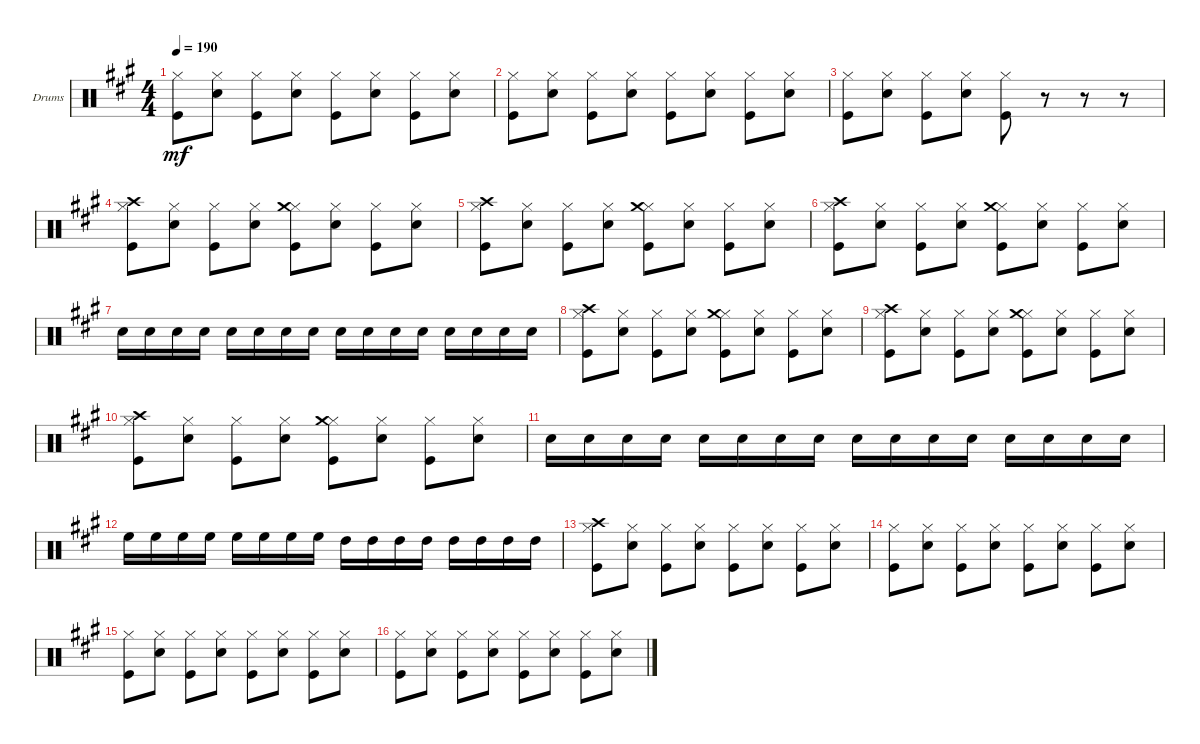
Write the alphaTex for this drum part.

\defaultSystemsLayout 4
\bracketExtendMode groupsimilarinstruments
\firstSystemTrackNameOrientation horizontal
\otherSystemsTrackNameOrientation horizontal
\track ("Drumkit" "Drums") {instrument percussion}
\staff {score}
\articulation defaults
\ts (4 4)
\tempo 190
\clef neutral
\ks f#minor
("Kick (hit)" "Hi-Hat (closed)").8{dy mf} ("Snare (hit) 2" "Hi-Hat (closed)").8 ("Kick (hit)" "Hi-Hat (closed)").8 ("Snare (hit) 2" "Hi-Hat (closed)").8 ("Kick (hit)" "Hi-Hat (closed)").8 ("Snare (hit) 2" "Hi-Hat (closed)").8 ("Kick (hit)" "Hi-Hat (closed)").8 ("Snare (hit) 2" "Hi-Hat (closed)").8 |
("Kick (hit)" "Hi-Hat (closed)").8 ("Snare (hit) 2" "Hi-Hat (closed)").8 ("Kick (hit)" "Hi-Hat (closed)").8 ("Snare (hit) 2" "Hi-Hat (closed)").8 ("Kick (hit)" "Hi-Hat (closed)").8 ("Snare (hit) 2" "Hi-Hat (closed)").8 ("Kick (hit)" "Hi-Hat (closed)").8 ("Snare (hit) 2" "Hi-Hat (closed)").8 |
("Kick (hit)" "Hi-Hat (closed)").8 ("Snare (hit) 2" "Hi-Hat (closed)").8 ("Kick (hit)" "Hi-Hat (closed)").8 ("Snare (hit) 2" "Hi-Hat (closed)").8 ("Kick (hit)" "Hi-Hat (closed)").8 r.8 r.8 r.8 |
("Kick (hit)" "Hi-Hat (closed)" "Crash high (hit)").8 ("Snare (hit) 2" "Hi-Hat (closed)").8 ("Kick (hit)" "Hi-Hat (closed)").8 ("Snare (hit) 2" "Hi-Hat (closed)").8 ("Kick (hit)" "Hi-Hat (closed)" "Crash medium (hit)").8 ("Snare (hit) 2" "Hi-Hat (closed)").8 ("Kick (hit)" "Hi-Hat (closed)").8 ("Snare (hit) 2" "Hi-Hat (closed)").8 |
("Kick (hit)" "Hi-Hat (closed)" "Crash high (hit)").8 ("Snare (hit) 2" "Hi-Hat (closed)").8 ("Kick (hit)" "Hi-Hat (closed)").8 ("Snare (hit) 2" "Hi-Hat (closed)").8 ("Kick (hit)" "Hi-Hat (closed)" "Crash medium (hit)").8 ("Snare (hit) 2" "Hi-Hat (closed)").8 ("Kick (hit)" "Hi-Hat (closed)").8 ("Snare (hit) 2" "Hi-Hat (closed)").8 |
("Kick (hit)" "Hi-Hat (closed)" "Crash high (hit)").8 ("Snare (hit) 2" "Hi-Hat (closed)").8 ("Kick (hit)" "Hi-Hat (closed)").8 ("Snare (hit) 2" "Hi-Hat (closed)").8 ("Kick (hit)" "Hi-Hat (closed)" "Crash medium (hit)").8 ("Snare (hit) 2" "Hi-Hat (closed)").8 ("Kick (hit)" "Hi-Hat (closed)").8 ("Snare (hit) 2" "Hi-Hat (closed)").8 |
"Snare (hit) 2".16 "Snare (hit) 2".16 "Snare (hit) 2".16 "Snare (hit) 2".16 "Snare (hit) 2".16 "Snare (hit) 2".16 "Snare (hit) 2".16 "Snare (hit) 2".16 "Snare (hit) 2".16 "Snare (hit) 2".16 "Snare (hit) 2".16 "Snare (hit) 2".16 "Snare (hit) 2".16 "Snare (hit) 2".16 "Snare (hit) 2".16 "Snare (hit) 2".16 |
("Kick (hit)" "Hi-Hat (closed)" "Crash high (hit)").8 ("Snare (hit) 2" "Hi-Hat (closed)").8 ("Kick (hit)" "Hi-Hat (closed)").8 ("Snare (hit) 2" "Hi-Hat (closed)").8 ("Kick (hit)" "Hi-Hat (closed)" "Crash medium (hit)").8 ("Snare (hit) 2" "Hi-Hat (closed)").8 ("Kick (hit)" "Hi-Hat (closed)").8 ("Snare (hit) 2" "Hi-Hat (closed)").8 |
("Kick (hit)" "Hi-Hat (closed)" "Crash high (hit)").8 ("Snare (hit) 2" "Hi-Hat (closed)").8 ("Kick (hit)" "Hi-Hat (closed)").8 ("Snare (hit) 2" "Hi-Hat (closed)").8 ("Kick (hit)" "Hi-Hat (closed)" "Crash medium (hit)").8 ("Snare (hit) 2" "Hi-Hat (closed)").8 ("Kick (hit)" "Hi-Hat (closed)").8 ("Snare (hit) 2" "Hi-Hat (closed)").8 |
("Kick (hit)" "Hi-Hat (closed)" "Crash high (hit)").8 ("Snare (hit) 2" "Hi-Hat (closed)").8 ("Kick (hit)" "Hi-Hat (closed)").8 ("Snare (hit) 2" "Hi-Hat (closed)").8 ("Kick (hit)" "Hi-Hat (closed)" "Crash medium (hit)").8 ("Snare (hit) 2" "Hi-Hat (closed)").8 ("Kick (hit)" "Hi-Hat (closed)").8 ("Snare (hit) 2" "Hi-Hat (closed)").8 |
"Snare (hit) 2".16 "Snare (hit) 2".16 "Snare (hit) 2".16 "Snare (hit) 2".16 "Snare (hit) 2".16 "Snare (hit) 2".16 "Snare (hit) 2".16 "Snare (hit) 2".16 "Snare (hit) 2".16 "Snare (hit) 2".16 "Snare (hit) 2".16 "Snare (hit) 2".16 "Snare (hit) 2".16 "Snare (hit) 2".16 "Snare (hit) 2".16 "Snare (hit) 2".16 |
"High Floor Tom (hit)".16 "High Floor Tom (hit)".16 "High Floor Tom (hit)".16 "High Floor Tom (hit)".16 "High Floor Tom (hit)".16 "High Floor Tom (hit)".16 "High Floor Tom (hit)".16 "High Floor Tom (hit)".16 "High Tom (hit)".16 "High Tom (hit)".16 "High Tom (hit)".16 "High Tom (hit)".16 "High Tom (hit)".16 "High Tom (hit)".16 "High Tom (hit)".16 "High Tom (hit)".16 |
("Kick (hit)" "Hi-Hat (closed)" "Crash high (hit)").8 ("Snare (hit) 2" "Hi-Hat (closed)").8 ("Kick (hit)" "Hi-Hat (closed)").8 ("Snare (hit) 2" "Hi-Hat (closed)").8 ("Kick (hit)" "Hi-Hat (closed)").8 ("Snare (hit) 2" "Hi-Hat (closed)").8 ("Kick (hit)" "Hi-Hat (closed)").8 ("Snare (hit) 2" "Hi-Hat (closed)").8 |
("Kick (hit)" "Hi-Hat (closed)").8 ("Snare (hit) 2" "Hi-Hat (closed)").8 ("Kick (hit)" "Hi-Hat (closed)").8 ("Snare (hit) 2" "Hi-Hat (closed)").8 ("Kick (hit)" "Hi-Hat (closed)").8 ("Snare (hit) 2" "Hi-Hat (closed)").8 ("Kick (hit)" "Hi-Hat (closed)").8 ("Snare (hit) 2" "Hi-Hat (closed)").8 |
("Kick (hit)" "Hi-Hat (closed)").8 ("Snare (hit) 2" "Hi-Hat (closed)").8 ("Kick (hit)" "Hi-Hat (closed)").8 ("Snare (hit) 2" "Hi-Hat (closed)").8 ("Kick (hit)" "Hi-Hat (closed)").8 ("Snare (hit) 2" "Hi-Hat (closed)").8 ("Kick (hit)" "Hi-Hat (closed)").8 ("Snare (hit) 2" "Hi-Hat (closed)").8 |
("Kick (hit)" "Hi-Hat (closed)").8 ("Snare (hit) 2" "Hi-Hat (closed)").8 ("Kick (hit)" "Hi-Hat (closed)").8 ("Snare (hit) 2" "Hi-Hat (closed)").8 ("Kick (hit)" "Hi-Hat (closed)").8 ("Snare (hit) 2" "Hi-Hat (closed)").8 ("Kick (hit)" "Hi-Hat (closed)").8 ("Snare (hit) 2" "Hi-Hat (closed)").8
